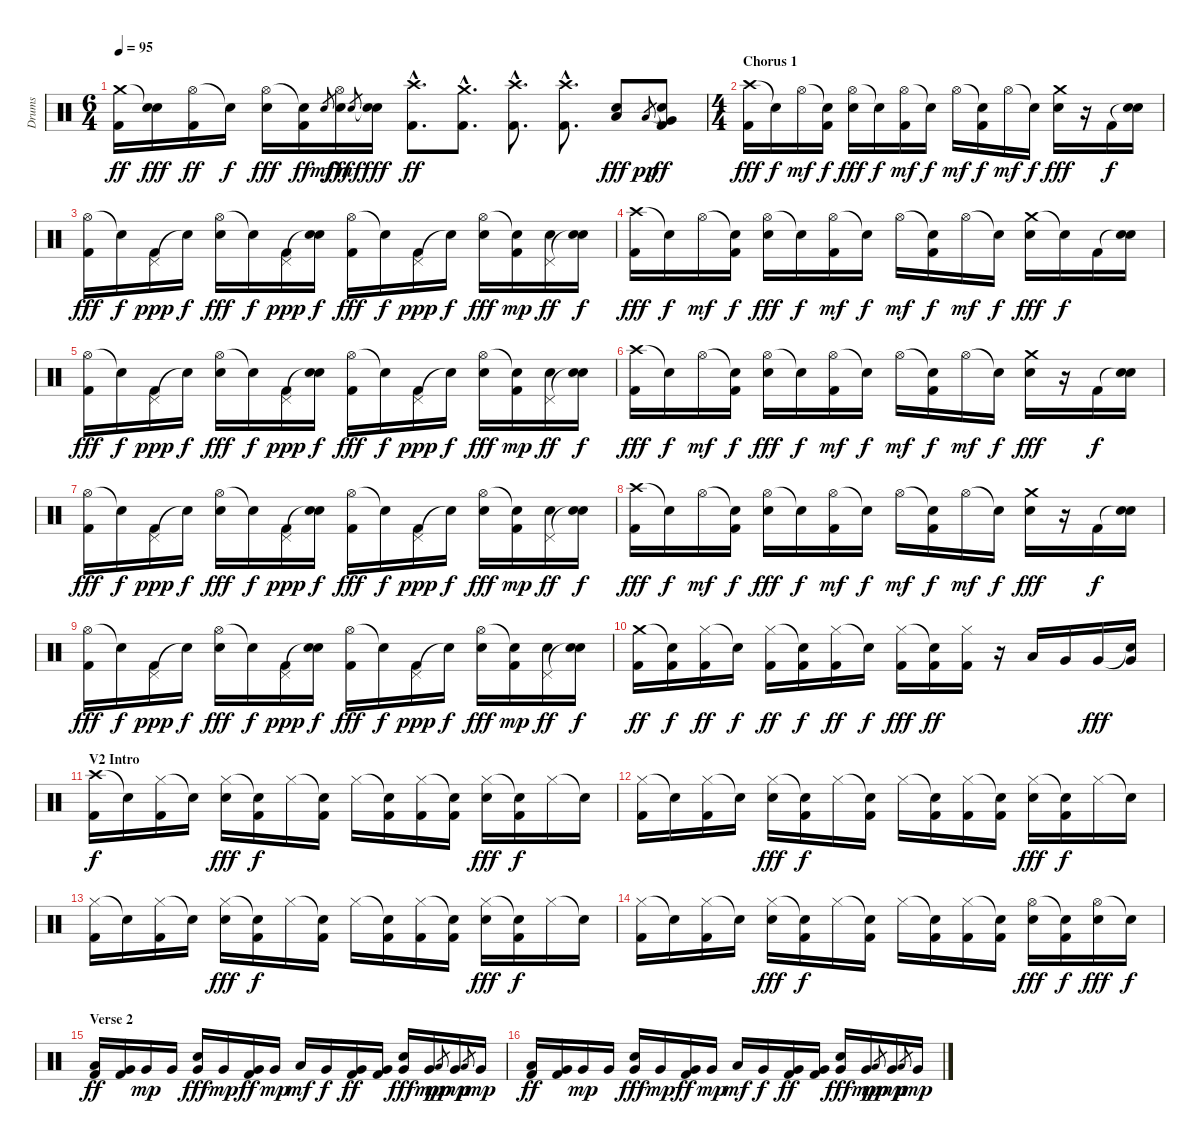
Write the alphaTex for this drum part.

\track ("Drums" "Drums") {instrument percussion}
\staff {score}
\articulation defaults
\ts (6 4)
\tempo 95
\clef neutral
\ks c
("Crash medium (hit)" "Kick (hit) 2").16{dy ff} ("Snare (hit)"{t} "Electric Snare (hit)").16{dy fff} ("Hi-Hat (open)" "Kick (hit) 2").16{dy ff} "Snare (hit)"{t}.16{dy f} ("Hi-Hat (open)" "Electric Snare (hit)").16{dy fff} ("Snare (hit)"{t} "Kick (hit) 2").16{dy ff} "Electric Snare (hit)".8{gr dy mf} ("Hi-Hat (open)" "Electric Snare (hit)").16{dy fff} "Electric Snare (hit)".8{gr dy mf} ("Snare (hit)"{t} "Electric Snare (hit)").16{dy fff} ("Crash high (hit)"{hac} "Kick (hit) 2"{hac}).8{d dy ff} ("Crash medium (hit)"{hac} "Kick (hit) 2"{hac}).8{d} ("Crash high (hit)"{hac} "Kick (hit) 2"{hac}).8{d} ("Crash high (hit)"{hac} "Kick (hit) 2"{hac}).8{d} ("Low Tom (hit)" "Electric Snare (hit)").8{dy fff} "Low Tom (hit)".8{gr dy pp} ("Snare (hit)"{t} "Very Low Tom (hit)" "Kick (hit) 2").8{dy ff} |
\ts (4 4)
\section ("" "Chorus 1")
("Crash high (hit)" "Kick (hit) 2").16{dy fff} "Snare (hit)"{t}.16{dy f} "Hi-Hat (open)".16{dy mf} ("Snare (hit)"{t} "Kick (hit) 2").16{dy f} ("Hi-Hat (open)" "Electric Snare (hit)").16{dy fff} "Snare (hit)"{t}.16{dy f} ("Hi-Hat (open)" "Kick (hit) 2").16{dy mf} "Snare (hit)"{t}.16{dy f} "Hi-Hat (open)".16{dy mf} ("Snare (hit)"{t} "Kick (hit) 2").16{dy f} "Hi-Hat (open)".16{dy mf} "Snare (hit)"{t}.16{dy f} ("Crash medium (hit)" "Electric Snare (hit)").16{dy fff} r.16 "Kick (hit) 2".16{dy f} ("Snare (hit)"{t} "Electric Snare (hit)").16 |
("Hi-Hat (open)" "Kick (hit) 2").16{dy fff} "Snare (hit)"{t}.16{dy f} ("Pedal Hi-Hat (hit)" "Kick (hit) 2").16{dy ppp} "Snare (hit)"{t}.16{dy f} ("Hi-Hat (open)" "Electric Snare (hit)").16{dy fff} "Snare (hit)"{t}.16{dy f} ("Pedal Hi-Hat (hit)" "Kick (hit) 2").16{dy ppp} ("Snare (hit)"{t} "Electric Snare (hit)").16{dy f} ("Hi-Hat (open)" "Kick (hit) 2").16{dy fff} "Snare (hit)"{t}.16{dy f} ("Pedal Hi-Hat (hit)" "Kick (hit) 2").16{dy ppp} "Snare (hit)"{t}.16{dy f} ("Hi-Hat (open)" "Electric Snare (hit)").16{dy fff} ("Snare (hit)"{t} "Kick (hit) 2").16{dy mp} ("Pedal Hi-Hat (hit)" "Electric Snare (hit)").16{dy ff} ("Snare (hit)"{t} "Electric Snare (hit)").16{dy f} |
("Crash high (hit)" "Kick (hit) 2").16{dy fff} "Snare (hit)"{t}.16{dy f} "Hi-Hat (open)".16{dy mf} ("Snare (hit)"{t} "Kick (hit) 2").16{dy f} ("Hi-Hat (open)" "Electric Snare (hit)").16{dy fff} "Snare (hit)"{t}.16{dy f} ("Hi-Hat (open)" "Kick (hit) 2").16{dy mf} "Snare (hit)"{t}.16{dy f} "Hi-Hat (open)".16{dy mf} ("Snare (hit)"{t} "Kick (hit) 2").16{dy f} "Hi-Hat (open)".16{dy mf} "Snare (hit)"{t}.16{dy f} ("Crash medium (hit)" "Electric Snare (hit)").16{dy fff} "Snare (hit)"{t}.16{dy f} "Kick (hit) 2".16 ("Snare (hit)"{t} "Electric Snare (hit)").16 |
("Hi-Hat (open)" "Kick (hit) 2").16{dy fff} "Snare (hit)"{t}.16{dy f} ("Pedal Hi-Hat (hit)" "Kick (hit) 2").16{dy ppp} "Snare (hit)"{t}.16{dy f} ("Hi-Hat (open)" "Electric Snare (hit)").16{dy fff} "Snare (hit)"{t}.16{dy f} ("Pedal Hi-Hat (hit)" "Kick (hit) 2").16{dy ppp} ("Snare (hit)"{t} "Electric Snare (hit)").16{dy f} ("Hi-Hat (open)" "Kick (hit) 2").16{dy fff} "Snare (hit)"{t}.16{dy f} ("Pedal Hi-Hat (hit)" "Kick (hit) 2").16{dy ppp} "Snare (hit)"{t}.16{dy f} ("Hi-Hat (open)" "Electric Snare (hit)").16{dy fff} ("Snare (hit)"{t} "Kick (hit) 2").16{dy mp} ("Pedal Hi-Hat (hit)" "Electric Snare (hit)").16{dy ff} ("Snare (hit)"{t} "Electric Snare (hit)").16{dy f} |
("Crash high (hit)" "Kick (hit) 2").16{dy fff} "Snare (hit)"{t}.16{dy f} "Hi-Hat (open)".16{dy mf} ("Snare (hit)"{t} "Kick (hit) 2").16{dy f} ("Hi-Hat (open)" "Electric Snare (hit)").16{dy fff} "Snare (hit)"{t}.16{dy f} ("Hi-Hat (open)" "Kick (hit) 2").16{dy mf} "Snare (hit)"{t}.16{dy f} "Hi-Hat (open)".16{dy mf} ("Snare (hit)"{t} "Kick (hit) 2").16{dy f} "Hi-Hat (open)".16{dy mf} "Snare (hit)"{t}.16{dy f} ("Crash medium (hit)" "Electric Snare (hit)").16{dy fff} r.16 "Kick (hit) 2".16{dy f} ("Snare (hit)"{t} "Electric Snare (hit)").16 |
("Hi-Hat (open)" "Kick (hit) 2").16{dy fff} "Snare (hit)"{t}.16{dy f} ("Pedal Hi-Hat (hit)" "Kick (hit) 2").16{dy ppp} "Snare (hit)"{t}.16{dy f} ("Hi-Hat (open)" "Electric Snare (hit)").16{dy fff} "Snare (hit)"{t}.16{dy f} ("Pedal Hi-Hat (hit)" "Kick (hit) 2").16{dy ppp} ("Snare (hit)"{t} "Electric Snare (hit)").16{dy f} ("Hi-Hat (open)" "Kick (hit) 2").16{dy fff} "Snare (hit)"{t}.16{dy f} ("Pedal Hi-Hat (hit)" "Kick (hit) 2").16{dy ppp} "Snare (hit)"{t}.16{dy f} ("Hi-Hat (open)" "Electric Snare (hit)").16{dy fff} ("Snare (hit)"{t} "Kick (hit) 2").16{dy mp} ("Pedal Hi-Hat (hit)" "Electric Snare (hit)").16{dy ff} ("Snare (hit)"{t} "Electric Snare (hit)").16{dy f} |
("Crash high (hit)" "Kick (hit) 2").16{dy fff} "Snare (hit)"{t}.16{dy f} "Hi-Hat (open)".16{dy mf} ("Snare (hit)"{t} "Kick (hit) 2").16{dy f} ("Hi-Hat (open)" "Electric Snare (hit)").16{dy fff} "Snare (hit)"{t}.16{dy f} ("Hi-Hat (open)" "Kick (hit) 2").16{dy mf} "Snare (hit)"{t}.16{dy f} "Hi-Hat (open)".16{dy mf} ("Snare (hit)"{t} "Kick (hit) 2").16{dy f} "Hi-Hat (open)".16{dy mf} "Snare (hit)"{t}.16{dy f} ("Crash medium (hit)" "Electric Snare (hit)").16{dy fff} r.16 "Kick (hit) 2".16{dy f} ("Snare (hit)"{t} "Electric Snare (hit)").16 |
("Hi-Hat (open)" "Kick (hit) 2").16{dy fff} "Snare (hit)"{t}.16{dy f} ("Pedal Hi-Hat (hit)" "Kick (hit) 2").16{dy ppp} "Snare (hit)"{t}.16{dy f} ("Hi-Hat (open)" "Electric Snare (hit)").16{dy fff} "Snare (hit)"{t}.16{dy f} ("Pedal Hi-Hat (hit)" "Kick (hit) 2").16{dy ppp} ("Snare (hit)"{t} "Electric Snare (hit)").16{dy f} ("Hi-Hat (open)" "Kick (hit) 2").16{dy fff} "Snare (hit)"{t}.16{dy f} ("Pedal Hi-Hat (hit)" "Kick (hit) 2").16{dy ppp} "Snare (hit)"{t}.16{dy f} ("Hi-Hat (open)" "Electric Snare (hit)").16{dy fff} ("Snare (hit)"{t} "Kick (hit) 2").16{dy mp} ("Pedal Hi-Hat (hit)" "Electric Snare (hit)").16{dy ff} ("Snare (hit)"{t} "Electric Snare (hit)").16{dy f} |
("Crash medium (hit)" "Kick (hit) 2").16{dy ff} ("Snare (hit)"{t} "Kick (hit) 2").16{dy f} ("Hi-Hat (closed)" "Kick (hit) 2").16{dy ff} "Snare (hit)"{t}.16{dy f} ("Hi-Hat (closed)" "Kick (hit) 2").16{dy ff} ("Snare (hit)"{t} "Kick (hit) 2").16{dy f} ("Hi-Hat (closed)" "Kick (hit) 2").16{dy ff} "Snare (hit)"{t}.16{dy f} ("Hi-Hat (closed)" "Kick (hit) 2").16{dy fff} ("Snare (hit)"{t} "Kick (hit) 2").16{dy ff} ("Hi-Hat (closed)" "Kick (hit) 2").16 r.16 "Low Tom (hit)".16 "Very Low Tom (hit)".16 "Very Low Tom (hit)".16{dy fff} ("Snare (hit)"{t} "Very Low Tom (hit)").16 |
\section ("" "V2 Intro")
("Crash high (hit)" "Kick (hit) 2").16{dy f} "Snare (hit)"{t}.16 ("Hi-Hat (closed)" "Kick (hit) 2").16 "Snare (hit)"{t}.16 ("Hi-Hat (closed)" "Electric Snare (hit)").16{dy fff} ("Snare (hit)"{t} "Kick (hit) 2").16{dy f} "Hi-Hat (closed)".16 ("Snare (hit)"{t} "Kick (hit) 2").16 "Hi-Hat (closed)".16 ("Snare (hit)"{t} "Kick (hit) 2").16 ("Hi-Hat (closed)" "Kick (hit) 2").16 ("Snare (hit)"{t} "Kick (hit) 2").16 ("Hi-Hat (closed)" "Electric Snare (hit)").16{dy fff} ("Snare (hit)"{t} "Kick (hit) 2").16{dy f} "Hi-Hat (closed)".16 "Snare (hit)"{t}.16 |
("Hi-Hat (closed)" "Kick (hit) 2").16 "Snare (hit)"{t}.16 ("Hi-Hat (closed)" "Kick (hit) 2").16 "Snare (hit)"{t}.16 ("Hi-Hat (closed)" "Electric Snare (hit)").16{dy fff} ("Snare (hit)"{t} "Kick (hit) 2").16{dy f} "Hi-Hat (closed)".16 ("Snare (hit)"{t} "Kick (hit) 2").16 "Hi-Hat (closed)".16 ("Snare (hit)"{t} "Kick (hit) 2").16 ("Hi-Hat (closed)" "Kick (hit) 2").16 ("Snare (hit)"{t} "Kick (hit) 2").16 ("Hi-Hat (closed)" "Electric Snare (hit)").16{dy fff} ("Snare (hit)"{t} "Kick (hit) 2").16{dy f} "Hi-Hat (closed)".16 "Snare (hit)"{t}.16 |
("Hi-Hat (closed)" "Kick (hit) 2").16 "Snare (hit)"{t}.16 ("Hi-Hat (closed)" "Kick (hit) 2").16 "Snare (hit)"{t}.16 ("Hi-Hat (closed)" "Electric Snare (hit)").16{dy fff} ("Snare (hit)"{t} "Kick (hit) 2").16{dy f} "Hi-Hat (closed)".16 ("Snare (hit)"{t} "Kick (hit) 2").16 "Hi-Hat (closed)".16 ("Snare (hit)"{t} "Kick (hit) 2").16 ("Hi-Hat (closed)" "Kick (hit) 2").16 ("Snare (hit)"{t} "Kick (hit) 2").16 ("Hi-Hat (closed)" "Electric Snare (hit)").16{dy fff} ("Snare (hit)"{t} "Kick (hit) 2").16{dy f} "Hi-Hat (closed)".16 "Snare (hit)"{t}.16 |
("Hi-Hat (closed)" "Kick (hit) 2").16 "Snare (hit)"{t}.16 ("Hi-Hat (closed)" "Kick (hit) 2").16 "Snare (hit)"{t}.16 ("Hi-Hat (closed)" "Electric Snare (hit)").16{dy fff} ("Snare (hit)"{t} "Kick (hit) 2").16{dy f} "Hi-Hat (closed)".16 ("Snare (hit)"{t} "Kick (hit) 2").16 "Hi-Hat (closed)".16 ("Snare (hit)"{t} "Kick (hit) 2").16 ("Hi-Hat (closed)" "Kick (hit) 2").16 ("Snare (hit)"{t} "Kick (hit) 2").16 ("Hi-Hat (open)" "Electric Snare (hit)").16{dy fff} ("Snare (hit)"{t} "Kick (hit) 2").16{dy f} ("Hi-Hat (open)" "Electric Snare (hit)").16{dy fff} "Snare (hit)"{t}.16{dy f} |
\section ("" "Verse 2")
("Low Tom (hit)" "Kick (hit) 2").16{dy ff} ("Very Low Tom (hit)" "Kick (hit) 2").16 "Very Low Tom (hit)".16{dy mp} "Very Low Tom (hit)".16 ("Very Low Tom (hit)" "Electric Snare (hit)").16{dy fff} "Very Low Tom (hit)".16{dy mp} ("Very Low Tom (hit)" "Kick (hit) 2").16{dy ff} "Very Low Tom (hit)".16{dy mp} "Low Tom (hit)".16{dy mf} "Very Low Tom (hit)".16{dy f} ("Very Low Tom (hit)" "Kick (hit) 2").16{dy ff} ("Very Low Tom (hit)" "Kick (hit) 2").16 ("Very Low Tom (hit)" "Electric Snare (hit)").16{dy fff} "Very Low Tom (hit)".16{dy mp} "Low Tom (hit)".8{gr dy pp} "Very Low Tom (hit)".16{dy mp} "Low Tom (hit)".8{gr dy p} "Very Low Tom (hit)".16{dy mp} |
("Low Tom (hit)" "Kick (hit) 2").16{dy ff} ("Very Low Tom (hit)" "Kick (hit) 2").16 "Very Low Tom (hit)".16{dy mp} "Very Low Tom (hit)".16 ("Very Low Tom (hit)" "Electric Snare (hit)").16{dy fff} "Very Low Tom (hit)".16{dy mp} ("Very Low Tom (hit)" "Kick (hit) 2").16{dy ff} "Very Low Tom (hit)".16{dy mp} "Low Tom (hit)".16{dy mf} "Very Low Tom (hit)".16{dy f} ("Very Low Tom (hit)" "Kick (hit) 2").16{dy ff} ("Very Low Tom (hit)" "Kick (hit) 2").16 ("Very Low Tom (hit)" "Electric Snare (hit)").16{dy fff} "Very Low Tom (hit)".16{dy mp} "Low Tom (hit)".8{gr dy pp} "Very Low Tom (hit)".16{dy mp} "Low Tom (hit)".8{gr dy p} "Very Low Tom (hit)".16{dy mp}
